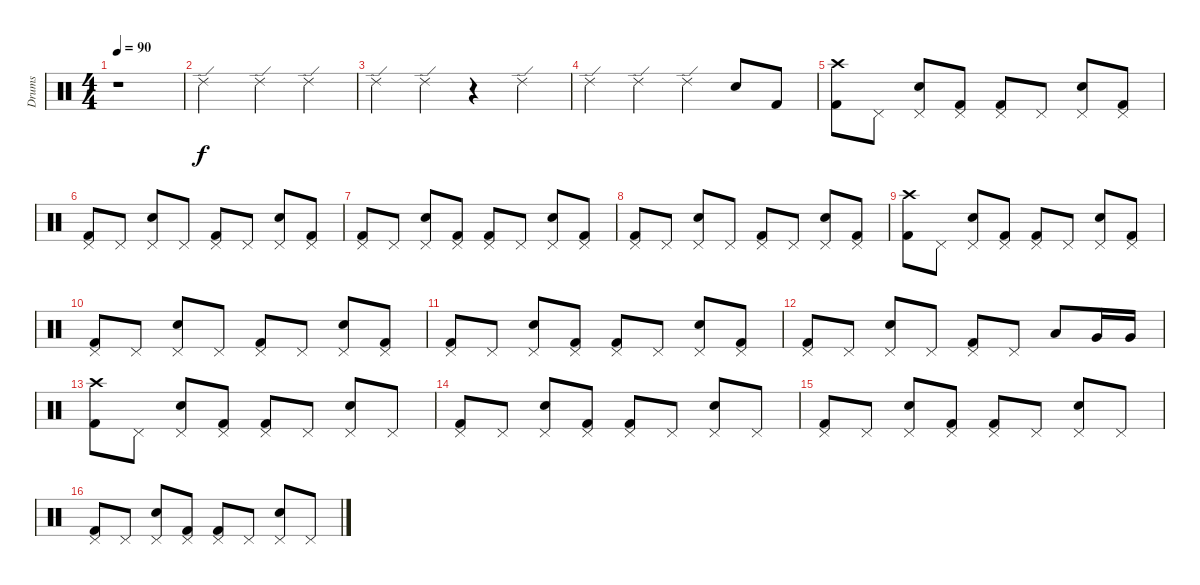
\track ("Drums" "Drums") {instrument percussion}
\staff {score}
\articulation defaults
\ts (4 4)
\tempo 90
\clef neutral
\ks c
r.1{dy f} |
"Ride (edge) 2".2 "Ride (edge) 2".4 "Ride (edge) 2".4 |
"Ride (edge) 2".4 "Ride (edge) 2".4 r.4 "Ride (edge) 2".4 |
"Ride (edge) 2".4 "Ride (edge) 2".4 "Ride (edge) 2".4 "Electric Snare (hit)".8 "Kick (hit) 2".8 |
("Crash high (hit)" "Kick (hit) 2").8 "Pedal Hi-Hat (hit)".8 ("Pedal Hi-Hat (hit)" "Electric Snare (hit)").8 ("Pedal Hi-Hat (hit)" "Kick (hit) 2").8 ("Pedal Hi-Hat (hit)" "Kick (hit) 2").8 "Pedal Hi-Hat (hit)".8 ("Pedal Hi-Hat (hit)" "Electric Snare (hit)").8 ("Pedal Hi-Hat (hit)" "Kick (hit) 2").8 |
("Pedal Hi-Hat (hit)" "Kick (hit) 2").8 "Pedal Hi-Hat (hit)".8 ("Pedal Hi-Hat (hit)" "Electric Snare (hit)").8 "Pedal Hi-Hat (hit)".8 ("Pedal Hi-Hat (hit)" "Kick (hit) 2").8 "Pedal Hi-Hat (hit)".8 ("Pedal Hi-Hat (hit)" "Electric Snare (hit)").8 ("Pedal Hi-Hat (hit)" "Kick (hit) 2").8 |
("Pedal Hi-Hat (hit)" "Kick (hit) 2").8 "Pedal Hi-Hat (hit)".8 ("Pedal Hi-Hat (hit)" "Electric Snare (hit)").8 ("Pedal Hi-Hat (hit)" "Kick (hit) 2").8 ("Pedal Hi-Hat (hit)" "Kick (hit) 2").8 "Pedal Hi-Hat (hit)".8 ("Pedal Hi-Hat (hit)" "Electric Snare (hit)").8 ("Pedal Hi-Hat (hit)" "Kick (hit) 2").8 |
("Pedal Hi-Hat (hit)" "Kick (hit) 2").8 "Pedal Hi-Hat (hit)".8 ("Pedal Hi-Hat (hit)" "Electric Snare (hit)").8 "Pedal Hi-Hat (hit)".8 ("Pedal Hi-Hat (hit)" "Kick (hit) 2").8 "Pedal Hi-Hat (hit)".8 ("Pedal Hi-Hat (hit)" "Electric Snare (hit)").8 ("Pedal Hi-Hat (hit)" "Kick (hit) 2").8 |
("Crash high (hit)" "Kick (hit) 2").8 "Pedal Hi-Hat (hit)".8 ("Pedal Hi-Hat (hit)" "Electric Snare (hit)").8 ("Pedal Hi-Hat (hit)" "Kick (hit) 2").8 ("Pedal Hi-Hat (hit)" "Kick (hit) 2").8 "Pedal Hi-Hat (hit)".8 ("Pedal Hi-Hat (hit)" "Electric Snare (hit)").8 ("Pedal Hi-Hat (hit)" "Kick (hit) 2").8 |
("Pedal Hi-Hat (hit)" "Kick (hit) 2").8 "Pedal Hi-Hat (hit)".8 ("Pedal Hi-Hat (hit)" "Electric Snare (hit)").8 "Pedal Hi-Hat (hit)".8 ("Pedal Hi-Hat (hit)" "Kick (hit) 2").8 "Pedal Hi-Hat (hit)".8 ("Pedal Hi-Hat (hit)" "Electric Snare (hit)").8 ("Pedal Hi-Hat (hit)" "Kick (hit) 2").8 |
("Pedal Hi-Hat (hit)" "Kick (hit) 2").8 "Pedal Hi-Hat (hit)".8 ("Pedal Hi-Hat (hit)" "Electric Snare (hit)").8 ("Pedal Hi-Hat (hit)" "Kick (hit) 2").8 ("Pedal Hi-Hat (hit)" "Kick (hit) 2").8 "Pedal Hi-Hat (hit)".8 ("Pedal Hi-Hat (hit)" "Electric Snare (hit)").8 ("Pedal Hi-Hat (hit)" "Kick (hit) 2").8 |
("Pedal Hi-Hat (hit)" "Kick (hit) 2").8 "Pedal Hi-Hat (hit)".8 ("Pedal Hi-Hat (hit)" "Electric Snare (hit)").8 "Pedal Hi-Hat (hit)".8 ("Pedal Hi-Hat (hit)" "Kick (hit) 2").8 "Pedal Hi-Hat (hit)".8 "Low Tom (hit)".8 "Very Low Tom (hit)".16 "Very Low Tom (hit)".16 |
("Crash high (hit)" "Kick (hit) 2").8 "Pedal Hi-Hat (hit)".8 ("Pedal Hi-Hat (hit)" "Electric Snare (hit)").8 ("Pedal Hi-Hat (hit)" "Kick (hit) 2").8 ("Pedal Hi-Hat (hit)" "Kick (hit) 2").8 "Pedal Hi-Hat (hit)".8 ("Pedal Hi-Hat (hit)" "Electric Snare (hit)").8 "Pedal Hi-Hat (hit)".8 |
("Pedal Hi-Hat (hit)" "Kick (hit) 2").8 "Pedal Hi-Hat (hit)".8 ("Pedal Hi-Hat (hit)" "Electric Snare (hit)").8 ("Pedal Hi-Hat (hit)" "Kick (hit) 2").8 ("Pedal Hi-Hat (hit)" "Kick (hit) 2").8 "Pedal Hi-Hat (hit)".8 ("Pedal Hi-Hat (hit)" "Electric Snare (hit)").8 "Pedal Hi-Hat (hit)".8 |
("Pedal Hi-Hat (hit)" "Kick (hit) 2").8 "Pedal Hi-Hat (hit)".8 ("Pedal Hi-Hat (hit)" "Electric Snare (hit)").8 ("Pedal Hi-Hat (hit)" "Kick (hit) 2").8 ("Pedal Hi-Hat (hit)" "Kick (hit) 2").8 "Pedal Hi-Hat (hit)".8 ("Pedal Hi-Hat (hit)" "Electric Snare (hit)").8 "Pedal Hi-Hat (hit)".8 |
("Pedal Hi-Hat (hit)" "Kick (hit) 2").8 "Pedal Hi-Hat (hit)".8 ("Pedal Hi-Hat (hit)" "Electric Snare (hit)").8 ("Pedal Hi-Hat (hit)" "Kick (hit) 2").8 ("Pedal Hi-Hat (hit)" "Kick (hit) 2").8 "Pedal Hi-Hat (hit)".8 ("Pedal Hi-Hat (hit)" "Electric Snare (hit)").8 "Pedal Hi-Hat (hit)".8
